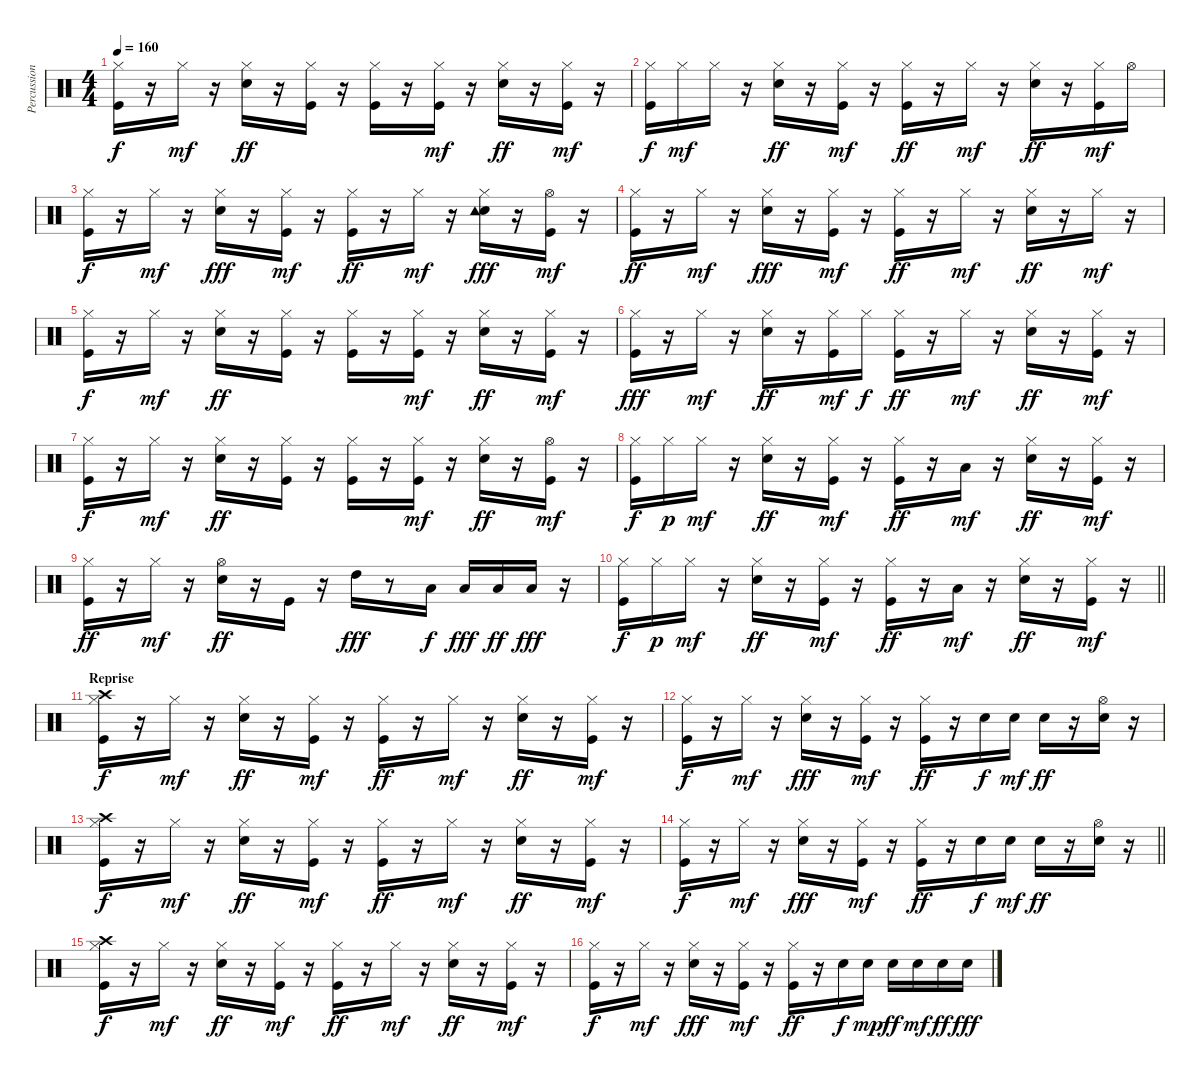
\track ("Percussions" "Percussion") {instrument percussion}
\staff {score}
\articulation defaults
\ts (4 4)
\tempo 160
\clef neutral
\ks c
("Kick (hit)" "Hi-Hat (closed)").16{dy f} r.16 "Hi-Hat (closed)".16{dy mf} r.16 ("Snare (hit) 2" "Hi-Hat (closed)").16{dy ff} r.16 ("Kick (hit)" "Hi-Hat (closed)").16 r.16 ("Kick (hit)" "Hi-Hat (closed)").16 r.16 ("Kick (hit)" "Hi-Hat (closed)").16{dy mf} r.16 ("Snare (hit) 2" "Hi-Hat (closed)").16{dy ff} r.16 ("Kick (hit)" "Hi-Hat (closed)").16{dy mf} r.16 |
("Kick (hit)" "Hi-Hat (closed)").16{dy f} "Hi-Hat (closed)".16{dy mf} "Hi-Hat (closed)".16 r.16 ("Snare (hit) 2" "Hi-Hat (closed)").16{dy ff} r.16 ("Kick (hit)" "Hi-Hat (closed)").16{dy mf} r.16 ("Kick (hit)" "Hi-Hat (closed)").16{dy ff} r.16 "Hi-Hat (closed)".16{dy mf} r.16 ("Snare (hit) 2" "Hi-Hat (closed)").16{dy ff} r.16 ("Kick (hit)" "Hi-Hat (closed)").16{dy mf} "Hi-Hat (open)".16 |
("Kick (hit)" "Hi-Hat (closed)").16{dy f} r.16 "Hi-Hat (closed)".16{dy mf} r.16 ("Snare (hit) 2" "Hi-Hat (closed)").16{dy fff} r.16 ("Kick (hit)" "Hi-Hat (closed)").16{dy mf} r.16 ("Kick (hit)" "Hi-Hat (closed)").16{dy ff} r.16 "Hi-Hat (closed)".16{dy mf} r.16 ("Snare (hit) 2" "Hi-Hat (closed)" "Tambourine (hit)").16{dy fff} r.16 ("Kick (hit)" "Hi-Hat (open)").16{dy mf} r.16 |
("Kick (hit)" "Hi-Hat (closed)").16{dy ff} r.16 "Hi-Hat (closed)".16{dy mf} r.16 ("Snare (hit) 2" "Hi-Hat (closed)").16{dy fff} r.16 ("Kick (hit)" "Hi-Hat (closed)").16{dy mf} r.16 ("Kick (hit)" "Hi-Hat (closed)").16{dy ff} r.16 "Hi-Hat (closed)".16{dy mf} r.16 ("Snare (hit) 2" "Hi-Hat (closed)").16{dy ff} r.16 "Hi-Hat (closed)".16{dy mf} r.16 |
("Kick (hit)" "Hi-Hat (closed)").16{dy f} r.16 "Hi-Hat (closed)".16{dy mf} r.16 ("Snare (hit) 2" "Hi-Hat (closed)").16{dy ff} r.16 ("Kick (hit)" "Hi-Hat (closed)").16 r.16 ("Kick (hit)" "Hi-Hat (closed)").16 r.16 ("Kick (hit)" "Hi-Hat (closed)").16{dy mf} r.16 ("Snare (hit) 2" "Hi-Hat (closed)").16{dy ff} r.16 ("Kick (hit)" "Hi-Hat (closed)").16{dy mf} r.16 |
("Kick (hit)" "Hi-Hat (closed)").16{dy fff} r.16 "Hi-Hat (closed)".16{dy mf} r.16 ("Snare (hit) 2" "Hi-Hat (closed)").16{dy ff} r.16 ("Kick (hit)" "Hi-Hat (closed)").16{dy mf} "Hi-Hat (closed)".16{dy f} ("Kick (hit)" "Hi-Hat (closed)").16{dy ff} r.16 "Hi-Hat (closed)".16{dy mf} r.16 ("Snare (hit) 2" "Hi-Hat (closed)").16{dy ff} r.16 ("Kick (hit)" "Hi-Hat (closed)").16{dy mf} r.16 |
("Kick (hit)" "Hi-Hat (closed)").16{dy f} r.16 "Hi-Hat (closed)".16{dy mf} r.16 ("Snare (hit) 2" "Hi-Hat (closed)").16{dy ff} r.16 ("Kick (hit)" "Hi-Hat (closed)").16 r.16 ("Kick (hit)" "Hi-Hat (closed)").16 r.16 ("Kick (hit)" "Hi-Hat (closed)").16{dy mf} r.16 ("Snare (hit) 2" "Hi-Hat (closed)").16{dy ff} r.16 ("Kick (hit)" "Hi-Hat (open)").16{dy mf} r.16 |
("Kick (hit)" "Hi-Hat (closed)").16{dy f} "Hi-Hat (closed)".16{dy p} "Hi-Hat (closed)".16{dy mf} r.16 ("Snare (hit) 2" "Hi-Hat (closed)").16{dy ff} r.16 ("Kick (hit)" "Hi-Hat (closed)").16{dy mf} r.16 ("Kick (hit)" "Hi-Hat (closed)").16{dy ff} r.16 "Low Floor Tom (hit)".16{dy mf} r.16 ("Snare (hit) 2" "Hi-Hat (closed)").16{dy ff} r.16 ("Kick (hit)" "Hi-Hat (closed)").16{dy mf} r.16 |
("Kick (hit)" "Hi-Hat (closed)").16{dy ff} r.16 "Hi-Hat (closed)".16{dy mf} r.16 ("Snare (hit) 2" "Hi-Hat (open)").16{dy ff} r.16 "Kick (hit)".16 r.16 "High Tom (hit)".16{dy fff} r.8 "Low Tom (hit)".16{dy f} "Low Tom (hit)".16{dy fff} "Low Floor Tom (hit)".16{dy ff} "Low Floor Tom (hit)".16{dy fff} r.16 |
\barLineRight lightlight
("Kick (hit)" "Hi-Hat (closed)").16{dy f} "Hi-Hat (closed)".16{dy p} "Hi-Hat (closed)".16{dy mf} r.16 ("Snare (hit) 2" "Hi-Hat (closed)").16{dy ff} r.16 ("Kick (hit)" "Hi-Hat (closed)").16{dy mf} r.16 ("Kick (hit)" "Hi-Hat (closed)").16{dy ff} r.16 "Low Floor Tom (hit)".16{dy mf} r.16 ("Snare (hit) 2" "Hi-Hat (closed)").16{dy ff} r.16 ("Kick (hit)" "Hi-Hat (closed)").16{dy mf} r.16 |
\section ("" "Reprise")
("Kick (hit)" "Hi-Hat (closed)" "Crash high (hit)").16{dy f} r.16 "Hi-Hat (closed)".16{dy mf} r.16 ("Snare (hit) 2" "Hi-Hat (closed)").16{dy ff} r.16 ("Kick (hit)" "Hi-Hat (closed)").16{dy mf} r.16 ("Kick (hit)" "Hi-Hat (closed)").16{dy ff} r.16 "Hi-Hat (closed)".16{dy mf} r.16 ("Snare (hit) 2" "Hi-Hat (closed)").16{dy ff} r.16 ("Kick (hit)" "Hi-Hat (closed)").16{dy mf} r.16 |
("Kick (hit)" "Hi-Hat (closed)").16{dy f} r.16 "Hi-Hat (closed)".16{dy mf} r.16 ("Snare (hit) 2" "Hi-Hat (closed)").16{dy fff} r.16 ("Kick (hit)" "Hi-Hat (closed)").16{dy mf} r.16 ("Kick (hit)" "Hi-Hat (closed)").16{dy ff} r.16 "Snare (hit) 2".16{dy f} "Snare (hit) 2".16{dy mf} "Snare (hit) 2".16{dy ff} r.16 ("Snare (hit) 2" "Hi-Hat (open)").16 r.16 |
("Kick (hit)" "Hi-Hat (closed)" "Crash high (hit)").16{dy f} r.16 "Hi-Hat (closed)".16{dy mf} r.16 ("Snare (hit) 2" "Hi-Hat (closed)").16{dy ff} r.16 ("Kick (hit)" "Hi-Hat (closed)").16{dy mf} r.16 ("Kick (hit)" "Hi-Hat (closed)").16{dy ff} r.16 "Hi-Hat (closed)".16{dy mf} r.16 ("Snare (hit) 2" "Hi-Hat (closed)").16{dy ff} r.16 ("Kick (hit)" "Hi-Hat (closed)").16{dy mf} r.16 |
\barLineRight lightlight
("Kick (hit)" "Hi-Hat (closed)").16{dy f} r.16 "Hi-Hat (closed)".16{dy mf} r.16 ("Snare (hit) 2" "Hi-Hat (closed)").16{dy fff} r.16 ("Kick (hit)" "Hi-Hat (closed)").16{dy mf} r.16 ("Kick (hit)" "Hi-Hat (closed)").16{dy ff} r.16 "Snare (hit) 2".16{dy f} "Snare (hit) 2".16{dy mf} "Snare (hit) 2".16{dy ff} r.16 ("Snare (hit) 2" "Hi-Hat (open)").16 r.16 |
("Kick (hit)" "Hi-Hat (closed)" "Crash high (hit)").16{dy f} r.16 "Hi-Hat (closed)".16{dy mf} r.16 ("Snare (hit) 2" "Hi-Hat (closed)").16{dy ff} r.16 ("Kick (hit)" "Hi-Hat (closed)").16{dy mf} r.16 ("Kick (hit)" "Hi-Hat (closed)").16{dy ff} r.16 "Hi-Hat (closed)".16{dy mf} r.16 ("Snare (hit) 2" "Hi-Hat (closed)").16{dy ff} r.16 ("Kick (hit)" "Hi-Hat (closed)").16{dy mf} r.16 |
("Kick (hit)" "Hi-Hat (closed)").16{dy f} r.16 "Hi-Hat (closed)".16{dy mf} r.16 ("Snare (hit) 2" "Hi-Hat (closed)").16{dy fff} r.16 ("Kick (hit)" "Hi-Hat (closed)").16{dy mf} r.16 ("Kick (hit)" "Hi-Hat (closed)").16{dy ff} r.16 "Snare (hit) 2".16{dy f} "Snare (hit) 2".16{dy mp} "Snare (hit) 2".16{dy ff} "Snare (hit) 2".16{dy mf} "Snare (hit) 2".16{dy ff} "Snare (hit) 2".16{dy fff}
